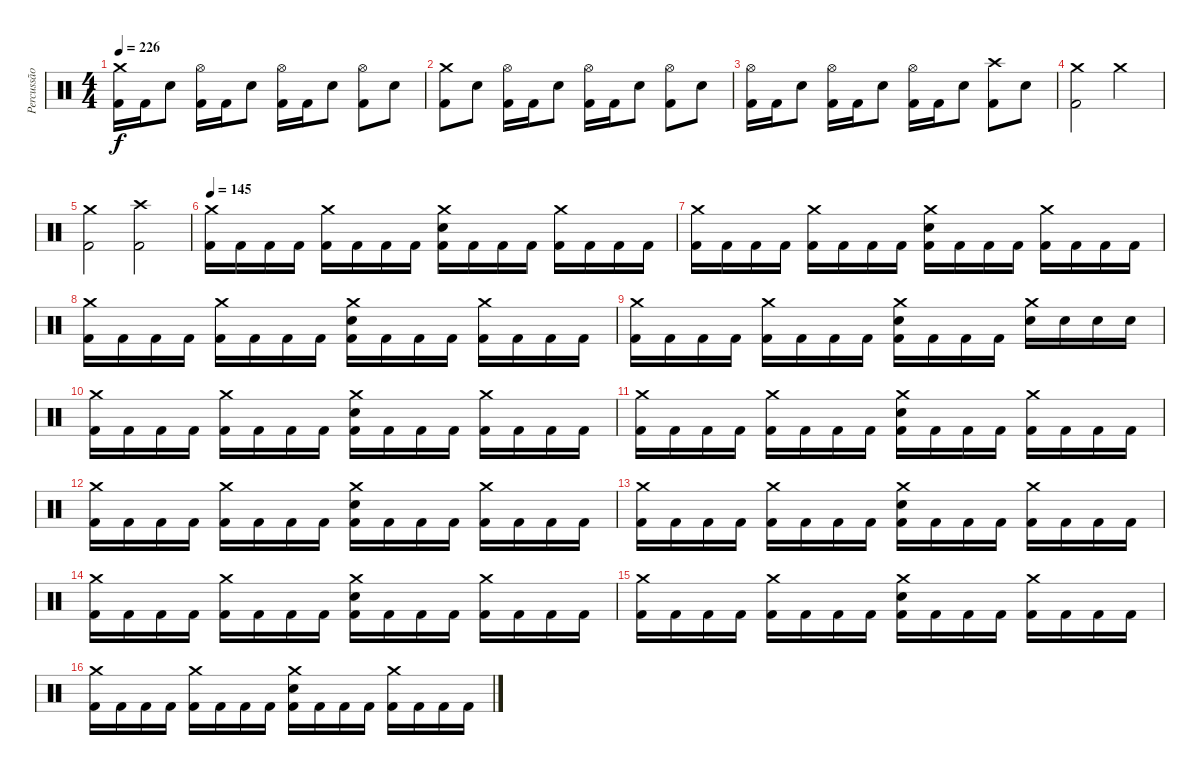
\track ("Percussão" "Percussão") {instrument percussion}
\staff {score}
\articulation defaults
\ts (4 4)
\tempo 226
\clef neutral
\ks c
("Crash medium (hit)" "Kick (hit) 2").16{dy f} "Kick (hit) 2".16 "Electric Snare (hit)".8 ("Hi-Hat (open)" "Kick (hit) 2").16 "Kick (hit) 2".16 "Electric Snare (hit)".8 ("Hi-Hat (open)" "Kick (hit) 2").16 "Kick (hit) 2".16 "Electric Snare (hit)".8 ("Hi-Hat (open)" "Kick (hit) 2").8 "Electric Snare (hit)".8 |
("Crash medium (hit)" "Kick (hit) 2").8 "Electric Snare (hit)".8 ("Hi-Hat (open)" "Kick (hit) 2").16 "Kick (hit) 2".16 "Electric Snare (hit)".8 ("Hi-Hat (open)" "Kick (hit) 2").16 "Kick (hit) 2".16 "Electric Snare (hit)".8 ("Hi-Hat (open)" "Kick (hit) 2").8 "Electric Snare (hit)".8 |
("Hi-Hat (open)" "Kick (hit) 2").16 "Kick (hit) 2".16 "Electric Snare (hit)".8 ("Hi-Hat (open)" "Kick (hit) 2").16 "Kick (hit) 2".16 "Electric Snare (hit)".8 ("Hi-Hat (open)" "Kick (hit) 2").16 "Kick (hit) 2".16 "Electric Snare (hit)".8 ("Crash high (hit)" "Kick (hit) 2").8 "Electric Snare (hit)".8 |
("Crash medium (hit)" "Kick (hit) 2").2 "Crash medium (hit)".2 |
("Crash medium (hit)" "Kick (hit) 2").2 ("Crash high (hit)" "Kick (hit) 2").2 |
\tempo 145
("Crash medium (hit)" "Kick (hit) 2").16 "Kick (hit) 2".16 "Kick (hit) 2".16 "Kick (hit) 2".16 ("Crash medium (hit)" "Kick (hit) 2").16 "Kick (hit) 2".16 "Kick (hit) 2".16 "Kick (hit) 2".16 ("Crash medium (hit)" "Electric Snare (hit)" "Kick (hit) 2").16 "Kick (hit) 2".16 "Kick (hit) 2".16 "Kick (hit) 2".16 ("Crash medium (hit)" "Kick (hit) 2").16 "Kick (hit) 2".16 "Kick (hit) 2".16 "Kick (hit) 2".16 |
("Crash medium (hit)" "Kick (hit) 2").16 "Kick (hit) 2".16 "Kick (hit) 2".16 "Kick (hit) 2".16 ("Crash medium (hit)" "Kick (hit) 2").16 "Kick (hit) 2".16 "Kick (hit) 2".16 "Kick (hit) 2".16 ("Crash medium (hit)" "Electric Snare (hit)" "Kick (hit) 2").16 "Kick (hit) 2".16 "Kick (hit) 2".16 "Kick (hit) 2".16 ("Crash medium (hit)" "Kick (hit) 2").16 "Kick (hit) 2".16 "Kick (hit) 2".16 "Kick (hit) 2".16 |
("Crash medium (hit)" "Kick (hit) 2").16 "Kick (hit) 2".16 "Kick (hit) 2".16 "Kick (hit) 2".16 ("Crash medium (hit)" "Kick (hit) 2").16 "Kick (hit) 2".16 "Kick (hit) 2".16 "Kick (hit) 2".16 ("Crash medium (hit)" "Electric Snare (hit)" "Kick (hit) 2").16 "Kick (hit) 2".16 "Kick (hit) 2".16 "Kick (hit) 2".16 ("Crash medium (hit)" "Kick (hit) 2").16 "Kick (hit) 2".16 "Kick (hit) 2".16 "Kick (hit) 2".16 |
("Crash medium (hit)" "Kick (hit) 2").16 "Kick (hit) 2".16 "Kick (hit) 2".16 "Kick (hit) 2".16 ("Crash medium (hit)" "Kick (hit) 2").16 "Kick (hit) 2".16 "Kick (hit) 2".16 "Kick (hit) 2".16 ("Crash medium (hit)" "Electric Snare (hit)" "Kick (hit) 2").16 "Kick (hit) 2".16 "Kick (hit) 2".16 "Kick (hit) 2".16 ("Crash medium (hit)" "Snare (hit)").16 "Snare (hit)".16 "Snare (hit)".16 "Snare (hit)".16 |
("Crash medium (hit)" "Kick (hit) 2").16 "Kick (hit) 2".16 "Kick (hit) 2".16 "Kick (hit) 2".16 ("Crash medium (hit)" "Kick (hit) 2").16 "Kick (hit) 2".16 "Kick (hit) 2".16 "Kick (hit) 2".16 ("Crash medium (hit)" "Electric Snare (hit)" "Kick (hit) 2").16 "Kick (hit) 2".16 "Kick (hit) 2".16 "Kick (hit) 2".16 ("Crash medium (hit)" "Kick (hit) 2").16 "Kick (hit) 2".16 "Kick (hit) 2".16 "Kick (hit) 2".16 |
("Crash medium (hit)" "Kick (hit) 2").16 "Kick (hit) 2".16 "Kick (hit) 2".16 "Kick (hit) 2".16 ("Crash medium (hit)" "Kick (hit) 2").16 "Kick (hit) 2".16 "Kick (hit) 2".16 "Kick (hit) 2".16 ("Crash medium (hit)" "Electric Snare (hit)" "Kick (hit) 2").16 "Kick (hit) 2".16 "Kick (hit) 2".16 "Kick (hit) 2".16 ("Crash medium (hit)" "Kick (hit) 2").16 "Kick (hit) 2".16 "Kick (hit) 2".16 "Kick (hit) 2".16 |
("Crash medium (hit)" "Kick (hit) 2").16 "Kick (hit) 2".16 "Kick (hit) 2".16 "Kick (hit) 2".16 ("Crash medium (hit)" "Kick (hit) 2").16 "Kick (hit) 2".16 "Kick (hit) 2".16 "Kick (hit) 2".16 ("Crash medium (hit)" "Electric Snare (hit)" "Kick (hit) 2").16 "Kick (hit) 2".16 "Kick (hit) 2".16 "Kick (hit) 2".16 ("Crash medium (hit)" "Kick (hit) 2").16 "Kick (hit) 2".16 "Kick (hit) 2".16 "Kick (hit) 2".16 |
("Crash medium (hit)" "Kick (hit) 2").16 "Kick (hit) 2".16 "Kick (hit) 2".16 "Kick (hit) 2".16 ("Crash medium (hit)" "Kick (hit) 2").16 "Kick (hit) 2".16 "Kick (hit) 2".16 "Kick (hit) 2".16 ("Crash medium (hit)" "Electric Snare (hit)" "Kick (hit) 2").16 "Kick (hit) 2".16 "Kick (hit) 2".16 "Kick (hit) 2".16 ("Crash medium (hit)" "Kick (hit) 2").16 "Kick (hit) 2".16 "Kick (hit) 2".16 "Kick (hit) 2".16 |
("Crash medium (hit)" "Kick (hit) 2").16 "Kick (hit) 2".16 "Kick (hit) 2".16 "Kick (hit) 2".16 ("Crash medium (hit)" "Kick (hit) 2").16 "Kick (hit) 2".16 "Kick (hit) 2".16 "Kick (hit) 2".16 ("Crash medium (hit)" "Electric Snare (hit)" "Kick (hit) 2").16 "Kick (hit) 2".16 "Kick (hit) 2".16 "Kick (hit) 2".16 ("Crash medium (hit)" "Kick (hit) 2").16 "Kick (hit) 2".16 "Kick (hit) 2".16 "Kick (hit) 2".16 |
("Crash medium (hit)" "Kick (hit) 2").16 "Kick (hit) 2".16 "Kick (hit) 2".16 "Kick (hit) 2".16 ("Crash medium (hit)" "Kick (hit) 2").16 "Kick (hit) 2".16 "Kick (hit) 2".16 "Kick (hit) 2".16 ("Crash medium (hit)" "Electric Snare (hit)" "Kick (hit) 2").16 "Kick (hit) 2".16 "Kick (hit) 2".16 "Kick (hit) 2".16 ("Crash medium (hit)" "Kick (hit) 2").16 "Kick (hit) 2".16 "Kick (hit) 2".16 "Kick (hit) 2".16 |
("Crash medium (hit)" "Kick (hit) 2").16 "Kick (hit) 2".16 "Kick (hit) 2".16 "Kick (hit) 2".16 ("Crash medium (hit)" "Kick (hit) 2").16 "Kick (hit) 2".16 "Kick (hit) 2".16 "Kick (hit) 2".16 ("Crash medium (hit)" "Electric Snare (hit)" "Kick (hit) 2").16 "Kick (hit) 2".16 "Kick (hit) 2".16 "Kick (hit) 2".16 ("Crash medium (hit)" "Kick (hit) 2").16 "Kick (hit) 2".16 "Kick (hit) 2".16 "Kick (hit) 2".16
